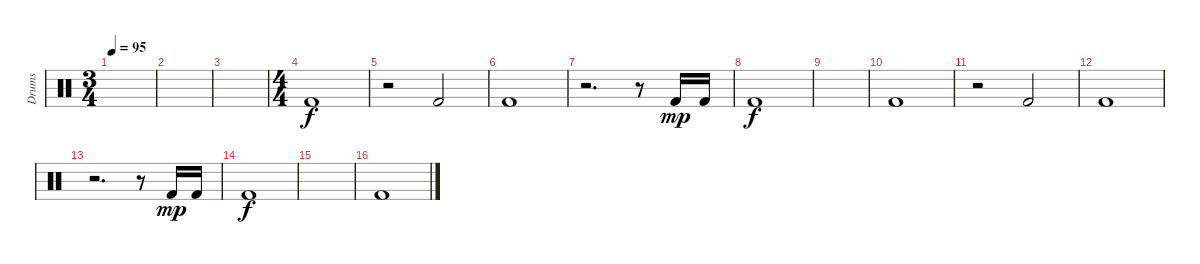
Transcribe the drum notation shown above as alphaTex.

\track ("Drums" "Drums") {instrument percussion}
\staff {score}
\articulation defaults
\ts (3 4)
\tempo 95
\clef neutral
\ks c
|
|
|
\ts (4 4)
"Kick (hit) 2".1 |
r.2 "Kick (hit) 2".2 |
"Kick (hit) 2".1 |
r.2{d} r.8 "Kick (hit) 2".16{dy mp} "Kick (hit) 2".16 |
"Kick (hit) 2".1{dy f} |
|
"Kick (hit) 2".1 |
r.2 "Kick (hit) 2".2 |
"Kick (hit) 2".1 |
r.2{d} r.8 "Kick (hit) 2".16{dy mp} "Kick (hit) 2".16 |
"Kick (hit) 2".1{dy f} |
|
"Kick (hit) 2".1
